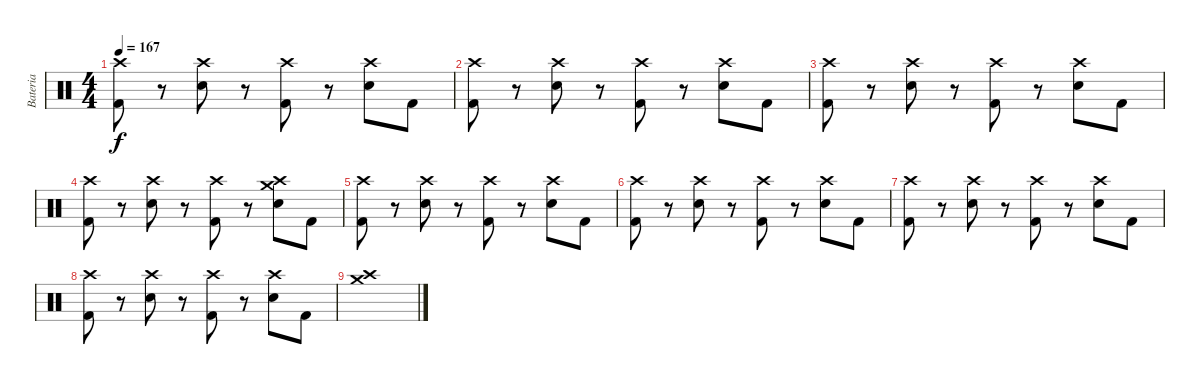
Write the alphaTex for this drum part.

\track ("Bateria" "Bateria") {instrument percussion}
\staff {score}
\articulation defaults
\ts (4 4)
\tempo 167
\clef neutral
\ks c
("Kick (hit) 2" "Crash high (hit)").8{dy f} r.8 ("Snare (hit) 2" "Crash high (hit)").8 r.8 ("Kick (hit) 2" "Crash high (hit)").8 r.8 ("Snare (hit) 2" "Crash high (hit)").8 "Kick (hit) 2".8 |
("Kick (hit) 2" "Crash high (hit)").8 r.8 ("Snare (hit) 2" "Crash high (hit)").8 r.8 ("Kick (hit) 2" "Crash high (hit)").8 r.8 ("Snare (hit) 2" "Crash high (hit)").8 "Kick (hit) 2".8 |
("Kick (hit) 2" "Crash high (hit)").8 r.8 ("Snare (hit) 2" "Crash high (hit)").8 r.8 ("Kick (hit) 2" "Crash high (hit)").8 r.8 ("Snare (hit) 2" "Crash high (hit)").8 "Kick (hit) 2".8 |
("Kick (hit) 2" "Crash high (hit)").8 r.8 ("Snare (hit) 2" "Crash high (hit)").8 r.8 ("Kick (hit) 2" "Crash high (hit)").8 r.8 ("Snare (hit) 2" "Crash high (hit)" "Crash medium (hit)").8 "Kick (hit) 2".8 |
("Kick (hit) 2" "Crash high (hit)").8 r.8 ("Snare (hit) 2" "Crash high (hit)").8 r.8 ("Kick (hit) 2" "Crash high (hit)").8 r.8 ("Snare (hit) 2" "Crash high (hit)").8 "Kick (hit) 2".8 |
("Kick (hit) 2" "Crash high (hit)").8 r.8 ("Snare (hit) 2" "Crash high (hit)").8 r.8 ("Kick (hit) 2" "Crash high (hit)").8 r.8 ("Snare (hit) 2" "Crash high (hit)").8 "Kick (hit) 2".8 |
("Kick (hit) 2" "Crash high (hit)").8 r.8 ("Snare (hit) 2" "Crash high (hit)").8 r.8 ("Kick (hit) 2" "Crash high (hit)").8 r.8 ("Snare (hit) 2" "Crash high (hit)").8 "Kick (hit) 2".8 |
("Kick (hit) 2" "Crash high (hit)").8 r.8 ("Snare (hit) 2" "Crash high (hit)").8 r.8 ("Kick (hit) 2" "Crash high (hit)").8 r.8 ("Snare (hit) 2" "Crash high (hit)").8 "Kick (hit) 2".8 |
("Crash high (hit)" "Crash medium (hit)").1
